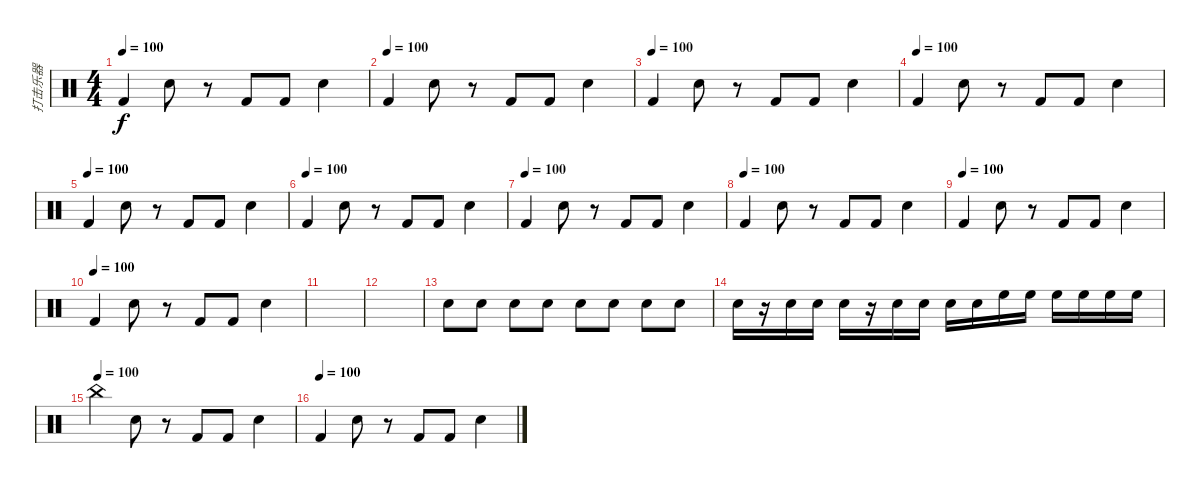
\track ("打击乐器" "打击乐器") {instrument percussion}
\staff {score}
\articulation defaults
\ts (4 4)
\tempo 100
\clef neutral
\ks c "Kick (hit) 2".4{dy f} "Snare (hit) 2".8
r.8 "Kick (hit) 2".8 "Kick (hit) 2".8 "Snare (hit) 2".4 |
\tempo (100)
"Kick (hit) 2".4 "Snare (hit) 2".8 r.8 "Kick (hit) 2".8 "Kick (hit) 2".8 "Snare (hit) 2".4 |
\tempo (100)
"Kick (hit) 2".4 "Snare (hit) 2".8 r.8 "Kick (hit) 2".8 "Kick (hit) 2".8 "Snare (hit) 2".4 |
\tempo (100)
"Kick (hit) 2".4 "Snare (hit) 2".8 r.8 "Kick (hit) 2".8 "Kick (hit) 2".8 "Snare (hit) 2".4 |
\tempo (100)
"Kick (hit) 2".4 "Snare (hit) 2".8 r.8 "Kick (hit) 2".8 "Kick (hit) 2".8 "Snare (hit) 2".4 |
\tempo (100)
"Kick (hit) 2".4 "Snare (hit) 2".8 r.8 "Kick (hit) 2".8 "Kick (hit) 2".8 "Snare (hit) 2".4 |
\tempo (100)
"Kick (hit) 2".4 "Snare (hit) 2".8 r.8 "Kick (hit) 2".8 "Kick (hit) 2".8 "Snare (hit) 2".4 |
\tempo (100)
"Kick (hit) 2".4 "Snare (hit) 2".8 r.8 "Kick (hit) 2".8 "Kick (hit) 2".8 "Snare (hit) 2".4 |
\tempo (100)
"Kick (hit) 2".4 "Snare (hit) 2".8 r.8 "Kick (hit) 2".8 "Kick (hit) 2".8 "Snare (hit) 2".4 |
\tempo (100)
"Kick (hit) 2".4 "Snare (hit) 2".8 r.8 "Kick (hit) 2".8 "Kick (hit) 2".8 "Snare (hit) 2".4 |
|
|
"Snare (hit) 2".8 "Snare (hit) 2".8 "Snare (hit) 2".8 "Snare (hit) 2".8 "Snare (hit) 2".8 "Snare (hit) 2".8 "Snare (hit) 2".8 "Snare (hit) 2".8 |
"Snare (hit) 2".16 r.16 "Snare (hit) 2".16 "Snare (hit) 2".16 "Snare (hit) 2".16 r.16 "Snare (hit) 2".16 "Snare (hit) 2".16 "Snare (hit) 2".16 "Snare (hit) 2".16 "High Floor Tom (hit)".16 "High Floor Tom (hit)".16 "High Floor Tom (hit)".16 "High Floor Tom (hit)".16 "High Floor Tom (hit)".16 "High Floor Tom (hit)".16 |
\tempo (100)
"China (hit)".4 "Snare (hit) 2".8 r.8 "Kick (hit) 2".8 "Kick (hit) 2".8 "Snare (hit) 2".4 |
\tempo (100)
"Kick (hit) 2".4 "Snare (hit) 2".8 r.8 "Kick (hit) 2".8 "Kick (hit) 2".8 "Snare (hit) 2".4
